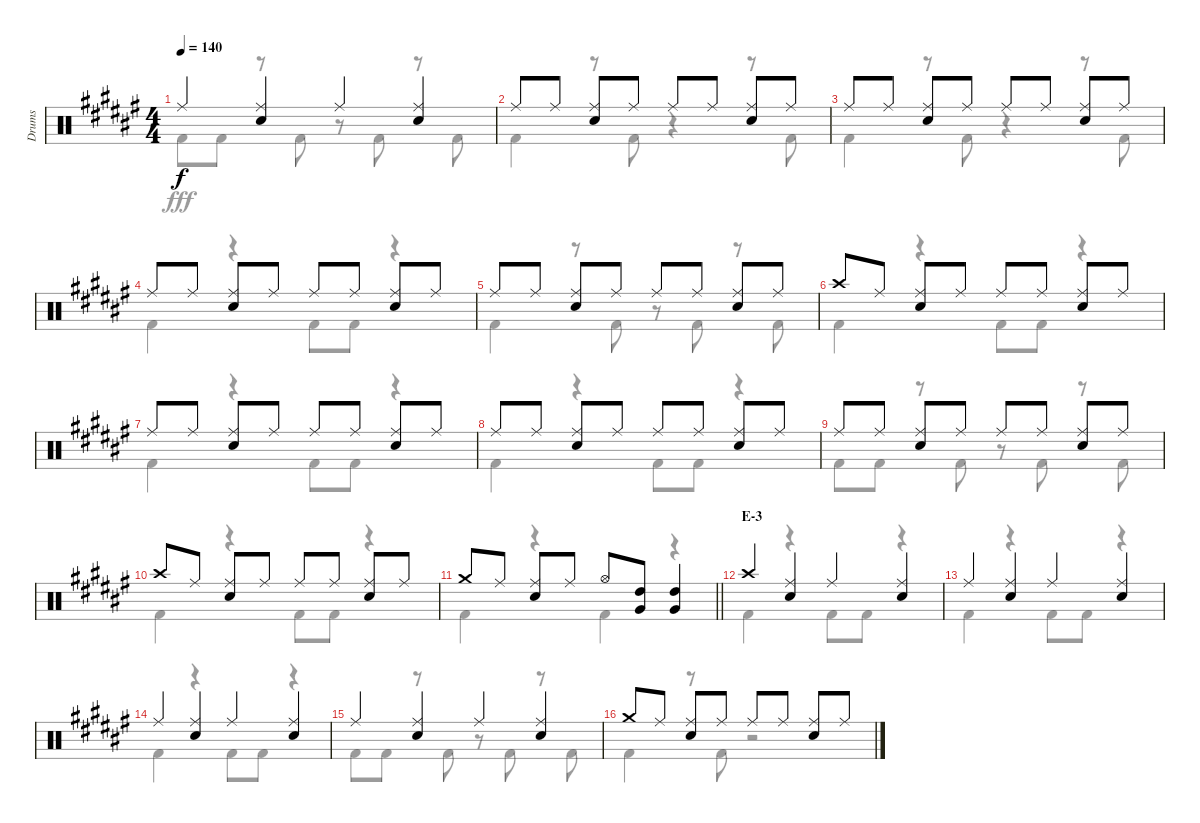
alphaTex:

\track ("Drums" "Drums") {instrument percussion}
\staff {score}
\articulation defaults
\voice
\ts (4 4)
\tempo 140
\clef neutral
\ks f# "Ride (middle)".4{dy f}
("Ride (middle)" "Snare (hit) 2").4 "Ride (middle)".4 ("Ride (middle)" "Snare (hit) 2").4 |
"Ride (middle)".8 "Ride (middle)".8 ("Ride (middle)" "Snare (hit) 2").8 "Ride (middle)".8 "Ride (middle)".8 "Ride (middle)".8 ("Ride (middle)" "Snare (hit) 2").8 "Ride (middle)".8 |
"Ride (middle)".8 "Ride (middle)".8 ("Ride (middle)" "Snare (hit) 2").8 "Ride (middle)".8 "Ride (middle)".8 "Ride (middle)".8 ("Ride (middle)" "Snare (hit) 2").8 "Ride (middle)".8 |
"Ride (middle)".8 "Ride (middle)".8 ("Ride (middle)" "Snare (hit) 2").8 "Ride (middle)".8 "Ride (middle)".8 "Ride (middle)".8 ("Ride (middle)" "Snare (hit) 2").8 "Ride (middle)".8 |
"Ride (middle)".8 "Ride (middle)".8 ("Ride (middle)" "Snare (hit) 2").8 "Ride (middle)".8 "Ride (middle)".8 "Ride (middle)".8 ("Ride (middle)" "Snare (hit) 2").8 "Ride (middle)".8 |
"Crash high (hit)".8 "Ride (middle)".8 ("Ride (middle)" "Snare (hit) 2").8 "Ride (middle)".8 "Ride (middle)".8 "Ride (middle)".8 ("Ride (middle)" "Snare (hit) 2").8 "Ride (middle)".8 |
"Ride (middle)".8 "Ride (middle)".8 ("Ride (middle)" "Snare (hit) 2").8 "Ride (middle)".8 "Ride (middle)".8 "Ride (middle)".8 ("Ride (middle)" "Snare (hit) 2").8 "Ride (middle)".8 |
"Ride (middle)".8 "Ride (middle)".8 ("Ride (middle)" "Snare (hit) 2").8 "Ride (middle)".8 "Ride (middle)".8 "Ride (middle)".8 ("Ride (middle)" "Snare (hit) 2").8 "Ride (middle)".8 |
"Ride (middle)".8 "Ride (middle)".8 ("Ride (middle)" "Snare (hit) 2").8 "Ride (middle)".8 "Ride (middle)".8 "Ride (middle)".8 ("Ride (middle)" "Snare (hit) 2").8 "Ride (middle)".8 |
"Crash high (hit)".8 "Ride (middle)".8 ("Ride (middle)" "Snare (hit) 2").8 "Ride (middle)".8 "Ride (middle)".8 "Ride (middle)".8 ("Ride (middle)" "Snare (hit) 2").8 "Ride (middle)".8 |
\barLineRight lightlight "Crash medium (hit)".8 "Ride (middle)".8
("Ride (middle)" "Snare (hit) 2").8 "Ride (middle)".8 "Hi-Hat (open)".8 ("High Tom (hit)" "Very Low Tom (hit)").8 ("High Tom (hit)" "Very Low Tom (hit)").4 |
\section ("" "E-3")
"Crash high (hit)".4 ("Ride (middle)" "Snare (hit) 2").4 "Ride (middle)".4 ("Ride (middle)" "Snare (hit) 2").4 |
"Ride (middle)".4 ("Ride (middle)" "Snare (hit) 2").4 "Ride (middle)".4 ("Ride (middle)" "Snare (hit) 2").4 |
"Ride (middle)".4 ("Ride (middle)" "Snare (hit) 2").4 "Ride (middle)".4 ("Ride (middle)" "Snare (hit) 2").4 |
"Ride (middle)".4 ("Ride (middle)" "Snare (hit) 2").4 "Ride (middle)".4 ("Ride (middle)" "Snare (hit) 2").4 |
"Crash medium (hit)".8 "Ride (middle)".8 ("Ride (middle)" "Snare (hit) 2").8 "Ride (middle)".8 "Ride (middle)".8 "Ride (middle)".8 ("Ride (middle)" "Snare (hit) 2").8 "Ride (middle)".8
\voice
\clef neutral
\ottava regular
\simile none
\ks f# "Kick (hit) 2".8{dy fff} "Kick (hit) 2".8
r.8 "Kick (hit) 2".8 r.8 "Kick (hit) 2".8 r.8 "Kick (hit) 2".8 |
"Kick (hit) 2".4 r.8 "Kick (hit) 2".8 r.4 r.8 "Kick (hit) 2".8 |
"Kick (hit) 2".4 r.8 "Kick (hit) 2".8 r.4 r.8 "Kick (hit) 2".8 |
"Kick (hit) 2".4 r.4 "Kick (hit) 2".8 "Kick (hit) 2".8 r.4 |
"Kick (hit) 2".4 r.8 "Kick (hit) 2".8 r.8 "Kick (hit) 2".8 r.8 "Kick (hit) 2".8 |
"Kick (hit) 2".4 r.4 "Kick (hit) 2".8 "Kick (hit) 2".8 r.4 |
"Kick (hit) 2".4 r.4 "Kick (hit) 2".8 "Kick (hit) 2".8 r.4 |
"Kick (hit) 2".4 r.4 "Kick (hit) 2".8 "Kick (hit) 2".8 r.4 |
"Kick (hit) 2".8 "Kick (hit) 2".8 r.8 "Kick (hit) 2".8 r.8 "Kick (hit) 2".8 r.8 "Kick (hit) 2".8 |
"Kick (hit) 2".4 r.4 "Kick (hit) 2".8 "Kick (hit) 2".8 r.4 |
\barLineRight lightlight "Kick (hit) 2".4
r.4 "Kick (hit) 2".4 r.4 |
"Kick (hit) 2".4 r.4 "Kick (hit) 2".8 "Kick (hit) 2".8 r.4 |
"Kick (hit) 2".4 r.4 "Kick (hit) 2".8 "Kick (hit) 2".8 r.4 |
"Kick (hit) 2".4 r.4 "Kick (hit) 2".8 "Kick (hit) 2".8 r.4 |
"Kick (hit) 2".8 "Kick (hit) 2".8 r.8 "Kick (hit) 2".8 r.8 "Kick (hit) 2".8 r.8 "Kick (hit) 2".8 |
"Kick (hit) 2".4 r.8 "Kick (hit) 2".8 r.2
